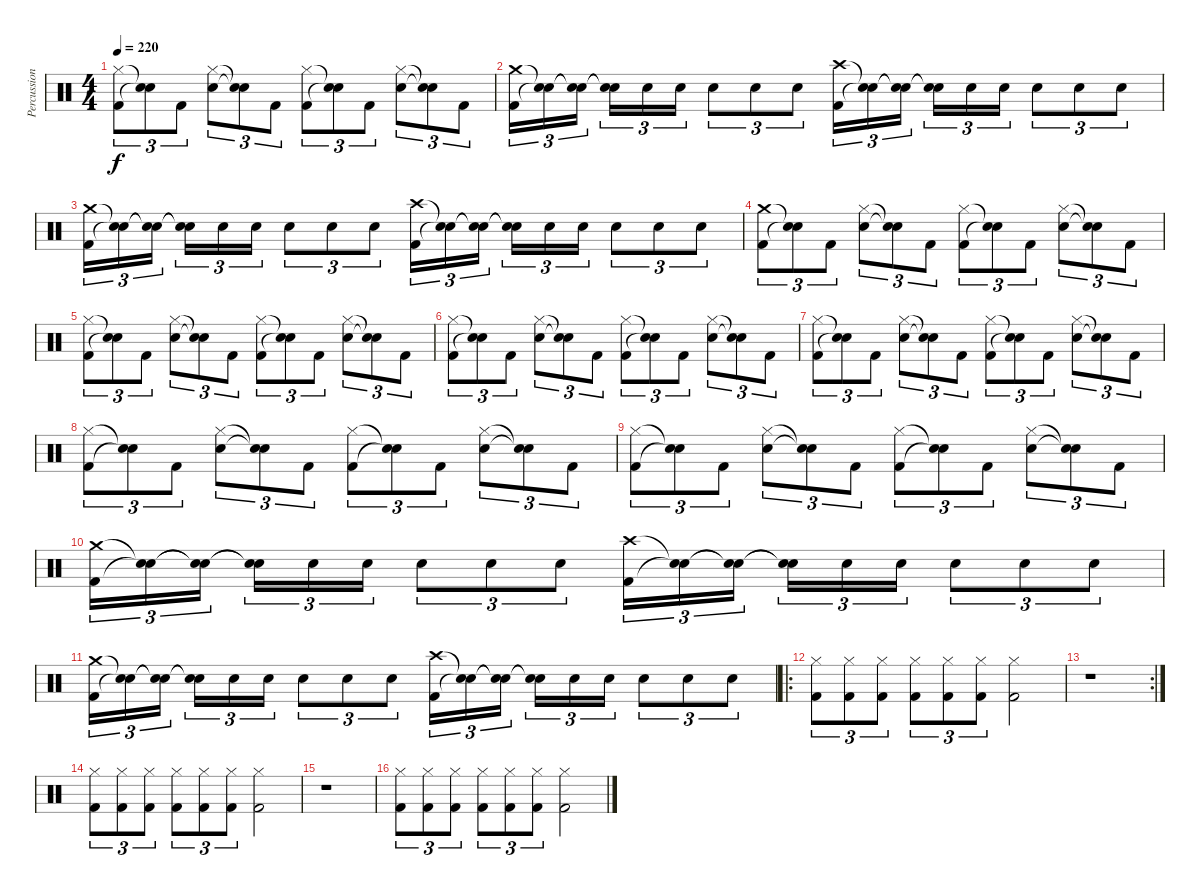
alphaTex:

\track ("Percussions" "Percussion") {instrument percussion}
\staff {score}
\articulation defaults
\ts (4 4)
\tempo 220
\clef neutral
\ks c
("Hi-Hat (closed)" "Kick (hit) 2").8{tu (3 2) dy f} ("Snare (hit)"{t} "Snare (hit)"{t}).8{tu (3 2)} "Kick (hit) 2".8{tu (3 2)} ("Hi-Hat (closed)" "Electric Snare (hit)").8{tu (3 2)} ("Snare (hit)"{t} "Snare (hit)"{t}).8{tu (3 2)} "Kick (hit) 2".8{tu (3 2)} ("Hi-Hat (closed)" "Kick (hit) 2").8{tu (3 2)} ("Snare (hit)"{t} "Snare (hit)"{t}).8{tu (3 2)} "Kick (hit) 2".8{tu (3 2)} ("Hi-Hat (closed)" "Electric Snare (hit)").8{tu (3 2)} ("Snare (hit)"{t} "Snare (hit)"{t}).8{tu (3 2)} "Kick (hit) 2".8{tu (3 2)} |
("Crash medium (hit)" "Kick (hit) 2").16{tu (3 2)} ("Snare (hit)"{t} "Snare (hit)"{t}).16{tu (3 2)} ("Snare (hit)"{t} "Snare (hit)"{t}).16{tu (3 2) beam splitsecondary} ("Snare (hit)"{t} "Snare (hit)"{t}).16{tu (3 2)} "Electric Snare (hit)".16{tu (3 2)} "Electric Snare (hit)".16{tu (3 2)} "Electric Snare (hit)".8{tu (3 2)} "Electric Snare (hit)".8{tu (3 2)} "Electric Snare (hit)".8{tu (3 2)} ("Crash high (hit)" "Kick (hit) 2").16{tu (3 2)} ("Snare (hit)"{t} "Snare (hit)"{t}).16{tu (3 2)} ("Snare (hit)"{t} "Snare (hit)"{t}).16{tu (3 2) beam splitsecondary} ("Snare (hit)"{t} "Snare (hit)"{t}).16{tu (3 2)} "Electric Snare (hit)".16{tu (3 2)} "Electric Snare (hit)".16{tu (3 2)} "Electric Snare (hit)".8{tu (3 2)} "Electric Snare (hit)".8{tu (3 2)} "Electric Snare (hit)".8{tu (3 2)} |
("Crash medium (hit)" "Kick (hit) 2").16{tu (3 2)} ("Snare (hit)"{t} "Snare (hit)"{t}).16{tu (3 2)} ("Snare (hit)"{t} "Snare (hit)"{t}).16{tu (3 2) beam splitsecondary} ("Snare (hit)"{t} "Snare (hit)"{t}).16{tu (3 2)} "Electric Snare (hit)".16{tu (3 2)} "Electric Snare (hit)".16{tu (3 2)} "Electric Snare (hit)".8{tu (3 2)} "Electric Snare (hit)".8{tu (3 2)} "Electric Snare (hit)".8{tu (3 2)} ("Crash high (hit)" "Kick (hit) 2").16{tu (3 2)} ("Snare (hit)"{t} "Snare (hit)"{t}).16{tu (3 2)} ("Snare (hit)"{t} "Snare (hit)"{t}).16{tu (3 2) beam splitsecondary} ("Snare (hit)"{t} "Snare (hit)"{t}).16{tu (3 2)} "Electric Snare (hit)".16{tu (3 2)} "Electric Snare (hit)".16{tu (3 2)} "Electric Snare (hit)".8{tu (3 2)} "Electric Snare (hit)".8{tu (3 2)} "Electric Snare (hit)".8{tu (3 2)} |
("Crash medium (hit)" "Kick (hit) 2").8{tu (3 2)} ("Snare (hit)"{t} "Snare (hit)"{t}).8{tu (3 2)} "Kick (hit) 2".8{tu (3 2)} ("Hi-Hat (closed)" "Electric Snare (hit)").8{tu (3 2)} ("Snare (hit)"{t} "Snare (hit)"{t}).8{tu (3 2)} "Kick (hit) 2".8{tu (3 2)} ("Hi-Hat (closed)" "Kick (hit) 2").8{tu (3 2)} ("Snare (hit)"{t} "Snare (hit)"{t}).8{tu (3 2)} "Kick (hit) 2".8{tu (3 2)} ("Hi-Hat (closed)" "Electric Snare (hit)").8{tu (3 2)} ("Snare (hit)"{t} "Snare (hit)"{t}).8{tu (3 2)} "Kick (hit) 2".8{tu (3 2)} |
("Hi-Hat (closed)" "Kick (hit) 2").8{tu (3 2)} ("Snare (hit)"{t} "Snare (hit)"{t}).8{tu (3 2)} "Kick (hit) 2".8{tu (3 2)} ("Hi-Hat (closed)" "Electric Snare (hit)").8{tu (3 2)} ("Snare (hit)"{t} "Snare (hit)"{t}).8{tu (3 2)} "Kick (hit) 2".8{tu (3 2)} ("Hi-Hat (closed)" "Kick (hit) 2").8{tu (3 2)} ("Snare (hit)"{t} "Snare (hit)"{t}).8{tu (3 2)} "Kick (hit) 2".8{tu (3 2)} ("Hi-Hat (closed)" "Electric Snare (hit)").8{tu (3 2)} ("Snare (hit)"{t} "Snare (hit)"{t}).8{tu (3 2)} "Kick (hit) 2".8{tu (3 2)} |
("Hi-Hat (closed)" "Kick (hit) 2").8{tu (3 2)} ("Snare (hit)"{t} "Snare (hit)"{t}).8{tu (3 2)} "Kick (hit) 2".8{tu (3 2)} ("Hi-Hat (closed)" "Electric Snare (hit)").8{tu (3 2)} ("Snare (hit)"{t} "Snare (hit)"{t}).8{tu (3 2)} "Kick (hit) 2".8{tu (3 2)} ("Hi-Hat (closed)" "Kick (hit) 2").8{tu (3 2)} ("Snare (hit)"{t} "Snare (hit)"{t}).8{tu (3 2)} "Kick (hit) 2".8{tu (3 2)} ("Hi-Hat (closed)" "Electric Snare (hit)").8{tu (3 2)} ("Snare (hit)"{t} "Snare (hit)"{t}).8{tu (3 2)} "Kick (hit) 2".8{tu (3 2)} |
("Hi-Hat (closed)" "Kick (hit) 2").8{tu (3 2)} ("Snare (hit)"{t} "Snare (hit)"{t}).8{tu (3 2)} "Kick (hit) 2".8{tu (3 2)} ("Hi-Hat (closed)" "Electric Snare (hit)").8{tu (3 2)} ("Snare (hit)"{t} "Snare (hit)"{t}).8{tu (3 2)} "Kick (hit) 2".8{tu (3 2)} ("Hi-Hat (closed)" "Kick (hit) 2").8{tu (3 2)} ("Snare (hit)"{t} "Snare (hit)"{t}).8{tu (3 2)} "Kick (hit) 2".8{tu (3 2)} ("Hi-Hat (closed)" "Electric Snare (hit)").8{tu (3 2)} ("Snare (hit)"{t} "Snare (hit)"{t}).8{tu (3 2)} "Kick (hit) 2".8{tu (3 2)} |
("Hi-Hat (closed)" "Kick (hit) 2").8{tu (3 2)} ("Snare (hit)"{t} "Snare (hit)"{t}).8{tu (3 2)} "Kick (hit) 2".8{tu (3 2)} ("Hi-Hat (closed)" "Electric Snare (hit)").8{tu (3 2)} ("Snare (hit)"{t} "Snare (hit)"{t}).8{tu (3 2)} "Kick (hit) 2".8{tu (3 2)} ("Hi-Hat (closed)" "Kick (hit) 2").8{tu (3 2)} ("Snare (hit)"{t} "Snare (hit)"{t}).8{tu (3 2)} "Kick (hit) 2".8{tu (3 2)} ("Hi-Hat (closed)" "Electric Snare (hit)").8{tu (3 2)} ("Snare (hit)"{t} "Snare (hit)"{t}).8{tu (3 2)} "Kick (hit) 2".8{tu (3 2)} |
("Hi-Hat (closed)" "Kick (hit) 2").8{tu (3 2)} ("Snare (hit)"{t} "Snare (hit)"{t}).8{tu (3 2)} "Kick (hit) 2".8{tu (3 2)} ("Hi-Hat (closed)" "Electric Snare (hit)").8{tu (3 2)} ("Snare (hit)"{t} "Snare (hit)"{t}).8{tu (3 2)} "Kick (hit) 2".8{tu (3 2)} ("Hi-Hat (closed)" "Kick (hit) 2").8{tu (3 2)} ("Snare (hit)"{t} "Snare (hit)"{t}).8{tu (3 2)} "Kick (hit) 2".8{tu (3 2)} ("Hi-Hat (closed)" "Electric Snare (hit)").8{tu (3 2)} ("Snare (hit)"{t} "Snare (hit)"{t}).8{tu (3 2)} "Kick (hit) 2".8{tu (3 2)} |
("Crash medium (hit)" "Kick (hit) 2").16{tu (3 2)} ("Snare (hit)"{t} "Snare (hit)"{t}).16{tu (3 2)} ("Snare (hit)"{t} "Snare (hit)"{t}).16{tu (3 2) beam splitsecondary} ("Snare (hit)"{t} "Snare (hit)"{t}).16{tu (3 2)} "Electric Snare (hit)".16{tu (3 2)} "Electric Snare (hit)".16{tu (3 2)} "Electric Snare (hit)".8{tu (3 2)} "Electric Snare (hit)".8{tu (3 2)} "Electric Snare (hit)".8{tu (3 2)} ("Crash high (hit)" "Kick (hit) 2").16{tu (3 2)} ("Snare (hit)"{t} "Snare (hit)"{t}).16{tu (3 2)} ("Snare (hit)"{t} "Snare (hit)"{t}).16{tu (3 2) beam splitsecondary} ("Snare (hit)"{t} "Snare (hit)"{t}).16{tu (3 2)} "Electric Snare (hit)".16{tu (3 2)} "Electric Snare (hit)".16{tu (3 2)} "Electric Snare (hit)".8{tu (3 2)} "Electric Snare (hit)".8{tu (3 2)} "Electric Snare (hit)".8{tu (3 2)} |
("Crash medium (hit)" "Kick (hit) 2").16{tu (3 2)} ("Snare (hit)"{t} "Snare (hit)"{t}).16{tu (3 2)} ("Snare (hit)"{t} "Snare (hit)"{t}).16{tu (3 2) beam splitsecondary} ("Snare (hit)"{t} "Snare (hit)"{t}).16{tu (3 2)} "Electric Snare (hit)".16{tu (3 2)} "Electric Snare (hit)".16{tu (3 2)} "Electric Snare (hit)".8{tu (3 2)} "Electric Snare (hit)".8{tu (3 2)} "Electric Snare (hit)".8{tu (3 2)} ("Crash high (hit)" "Kick (hit) 2").16{tu (3 2)} ("Snare (hit)"{t} "Snare (hit)"{t}).16{tu (3 2)} ("Snare (hit)"{t} "Snare (hit)"{t}).16{tu (3 2) beam splitsecondary} ("Snare (hit)"{t} "Snare (hit)"{t}).16{tu (3 2)} "Electric Snare (hit)".16{tu (3 2)} "Electric Snare (hit)".16{tu (3 2)} "Electric Snare (hit)".8{tu (3 2)} "Electric Snare (hit)".8{tu (3 2)} "Electric Snare (hit)".8{tu (3 2)} |
\ro
("Hi-Hat (closed)" "Kick (hit) 2").8{tu (3 2)} ("Hi-Hat (closed)" "Kick (hit) 2").8{tu (3 2)} ("Hi-Hat (closed)" "Kick (hit) 2").8{tu (3 2)} ("Hi-Hat (closed)" "Kick (hit) 2").8{tu (3 2)} ("Hi-Hat (closed)" "Kick (hit) 2").8{tu (3 2)} ("Hi-Hat (closed)" "Kick (hit) 2").8{tu (3 2)} ("Hi-Hat (closed)" "Kick (hit) 2").2 |
\rc 2
r.1 |
("Hi-Hat (closed)" "Kick (hit) 2").8{tu (3 2)} ("Hi-Hat (closed)" "Kick (hit) 2").8{tu (3 2)} ("Hi-Hat (closed)" "Kick (hit) 2").8{tu (3 2)} ("Hi-Hat (closed)" "Kick (hit) 2").8{tu (3 2)} ("Hi-Hat (closed)" "Kick (hit) 2").8{tu (3 2)} ("Hi-Hat (closed)" "Kick (hit) 2").8{tu (3 2)} ("Hi-Hat (closed)" "Kick (hit) 2").2 |
r.1 |
("Hi-Hat (closed)" "Kick (hit) 2").8{tu (3 2)} ("Hi-Hat (closed)" "Kick (hit) 2").8{tu (3 2)} ("Hi-Hat (closed)" "Kick (hit) 2").8{tu (3 2)} ("Hi-Hat (closed)" "Kick (hit) 2").8{tu (3 2)} ("Hi-Hat (closed)" "Kick (hit) 2").8{tu (3 2)} ("Hi-Hat (closed)" "Kick (hit) 2").8{tu (3 2)} ("Hi-Hat (closed)" "Kick (hit) 2").2
